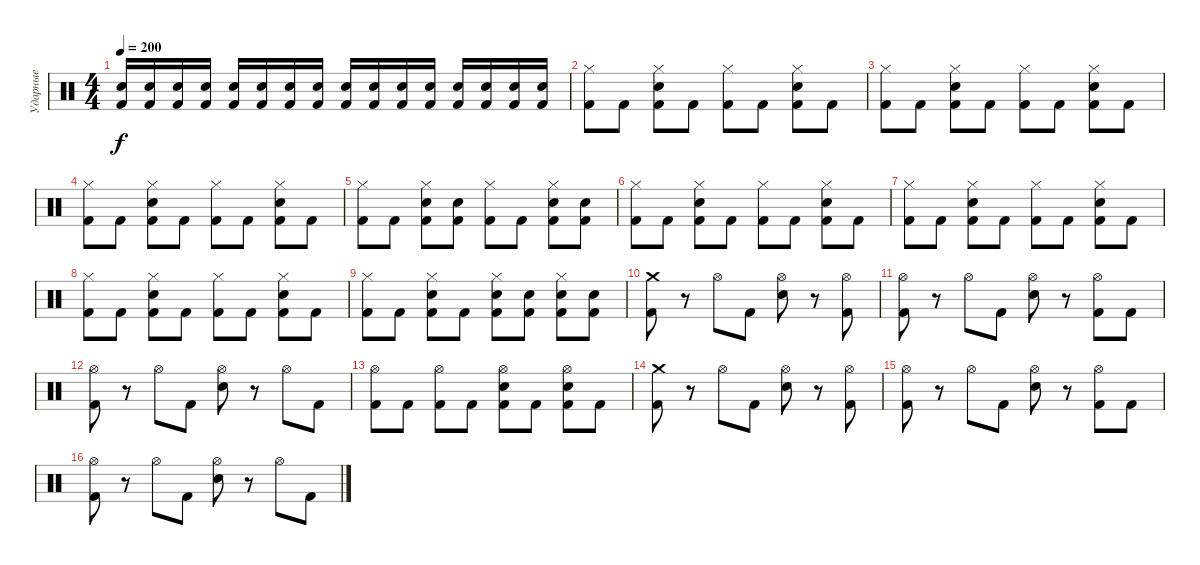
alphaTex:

\track ("Ударные" "Ударные") {instrument percussion}
\staff {score}
\articulation defaults
\ts (4 4)
\tempo 200
\clef neutral
\ks c
("Snare (hit) 2" "Kick (hit) 2").16{dy f} ("Snare (hit) 2" "Kick (hit) 2").16 ("Snare (hit) 2" "Kick (hit) 2").16 ("Snare (hit) 2" "Kick (hit) 2").16 ("Snare (hit) 2" "Kick (hit) 2").16 ("Snare (hit) 2" "Kick (hit) 2").16 ("Snare (hit) 2" "Kick (hit) 2").16 ("Snare (hit) 2" "Kick (hit) 2").16 ("Snare (hit) 2" "Kick (hit) 2").16 ("Snare (hit) 2" "Kick (hit) 2").16 ("Snare (hit) 2" "Kick (hit) 2").16 ("Snare (hit) 2" "Kick (hit) 2").16 ("Snare (hit) 2" "Kick (hit) 2").16 ("Snare (hit) 2" "Kick (hit) 2").16 ("Snare (hit) 2" "Kick (hit) 2").16 ("Snare (hit) 2" "Kick (hit) 2").16 |
("Hi-Hat (closed)" "Kick (hit) 2").8 "Kick (hit) 2".8 ("Hi-Hat (closed)" "Snare (hit) 2" "Kick (hit) 2").8 "Kick (hit) 2".8 ("Hi-Hat (closed)" "Kick (hit) 2").8 "Kick (hit) 2".8 ("Hi-Hat (closed)" "Snare (hit) 2" "Kick (hit) 2").8 "Kick (hit) 2".8 |
("Hi-Hat (closed)" "Kick (hit) 2").8 "Kick (hit) 2".8 ("Hi-Hat (closed)" "Snare (hit) 2" "Kick (hit) 2").8 "Kick (hit) 2".8 ("Hi-Hat (closed)" "Kick (hit) 2").8 "Kick (hit) 2".8 ("Hi-Hat (closed)" "Snare (hit) 2" "Kick (hit) 2").8 "Kick (hit) 2".8 |
("Hi-Hat (closed)" "Kick (hit) 2").8 "Kick (hit) 2".8 ("Hi-Hat (closed)" "Snare (hit) 2" "Kick (hit) 2").8 "Kick (hit) 2".8 ("Hi-Hat (closed)" "Kick (hit) 2").8 "Kick (hit) 2".8 ("Hi-Hat (closed)" "Snare (hit) 2" "Kick (hit) 2").8 "Kick (hit) 2".8 |
("Hi-Hat (closed)" "Kick (hit) 2").8 "Kick (hit) 2".8 ("Hi-Hat (closed)" "Snare (hit) 2" "Kick (hit) 2").8 ("Snare (hit) 2" "Kick (hit) 2").8 ("Hi-Hat (closed)" "Kick (hit) 2").8 "Kick (hit) 2".8 ("Hi-Hat (closed)" "Snare (hit) 2" "Kick (hit) 2").8 ("Snare (hit) 2" "Kick (hit) 2").8 |
("Hi-Hat (closed)" "Kick (hit) 2").8 "Kick (hit) 2".8 ("Hi-Hat (closed)" "Snare (hit) 2" "Kick (hit) 2").8 "Kick (hit) 2".8 ("Hi-Hat (closed)" "Kick (hit) 2").8 "Kick (hit) 2".8 ("Hi-Hat (closed)" "Snare (hit) 2" "Kick (hit) 2").8 "Kick (hit) 2".8 |
("Hi-Hat (closed)" "Kick (hit) 2").8 "Kick (hit) 2".8 ("Hi-Hat (closed)" "Snare (hit) 2" "Kick (hit) 2").8 "Kick (hit) 2".8 ("Hi-Hat (closed)" "Kick (hit) 2").8 "Kick (hit) 2".8 ("Hi-Hat (closed)" "Snare (hit) 2" "Kick (hit) 2").8 "Kick (hit) 2".8 |
("Hi-Hat (closed)" "Kick (hit) 2").8 "Kick (hit) 2".8 ("Hi-Hat (closed)" "Snare (hit) 2" "Kick (hit) 2").8 "Kick (hit) 2".8 ("Hi-Hat (closed)" "Kick (hit) 2").8 "Kick (hit) 2".8 ("Hi-Hat (closed)" "Snare (hit) 2" "Kick (hit) 2").8 "Kick (hit) 2".8 |
("Hi-Hat (closed)" "Kick (hit) 2").8 "Kick (hit) 2".8 ("Hi-Hat (closed)" "Snare (hit) 2" "Kick (hit) 2").8 "Kick (hit) 2".8 ("Hi-Hat (closed)" "Snare (hit) 2" "Kick (hit) 2").8 ("Snare (hit) 2" "Kick (hit) 2").8 ("Hi-Hat (closed)" "Snare (hit) 2" "Kick (hit) 2").8 ("Snare (hit) 2" "Kick (hit) 2").8 |
("Crash medium (hit)" "Kick (hit) 2").8 r.8 "Hi-Hat (open)".8 "Kick (hit) 2".8 ("Hi-Hat (open)" "Snare (hit) 2").8 r.8 ("Hi-Hat (open)" "Kick (hit) 2").8 |
("Hi-Hat (open)" "Kick (hit) 2").8 r.8 "Hi-Hat (open)".8 "Kick (hit) 2".8 ("Hi-Hat (open)" "Snare (hit) 2").8 r.8 ("Hi-Hat (open)" "Kick (hit) 2").8 "Kick (hit) 2".8 |
("Hi-Hat (open)" "Kick (hit) 2").8 r.8 "Hi-Hat (open)".8 "Kick (hit) 2".8 ("Hi-Hat (open)" "Snare (hit) 2").8 r.8 "Hi-Hat (open)".8 "Kick (hit) 2".8 |
("Hi-Hat (open)" "Kick (hit) 2").8 "Kick (hit) 2".8 ("Hi-Hat (open)" "Kick (hit) 2").8 "Kick (hit) 2".8 ("Hi-Hat (open)" "Snare (hit) 2" "Kick (hit) 2").8 "Kick (hit) 2".8 ("Hi-Hat (open)" "Snare (hit) 2" "Kick (hit) 2").8 "Kick (hit) 2".8 |
("Crash medium (hit)" "Kick (hit) 2").8 r.8 "Hi-Hat (open)".8 "Kick (hit) 2".8 ("Hi-Hat (open)" "Snare (hit) 2").8 r.8 ("Hi-Hat (open)" "Kick (hit) 2").8 |
("Hi-Hat (open)" "Kick (hit) 2").8 r.8 "Hi-Hat (open)".8 "Kick (hit) 2".8 ("Hi-Hat (open)" "Snare (hit) 2").8 r.8 ("Hi-Hat (open)" "Kick (hit) 2").8 "Kick (hit) 2".8 |
("Hi-Hat (open)" "Kick (hit) 2").8 r.8 "Hi-Hat (open)".8 "Kick (hit) 2".8 ("Hi-Hat (open)" "Snare (hit) 2").8 r.8 "Hi-Hat (open)".8 "Kick (hit) 2".8
